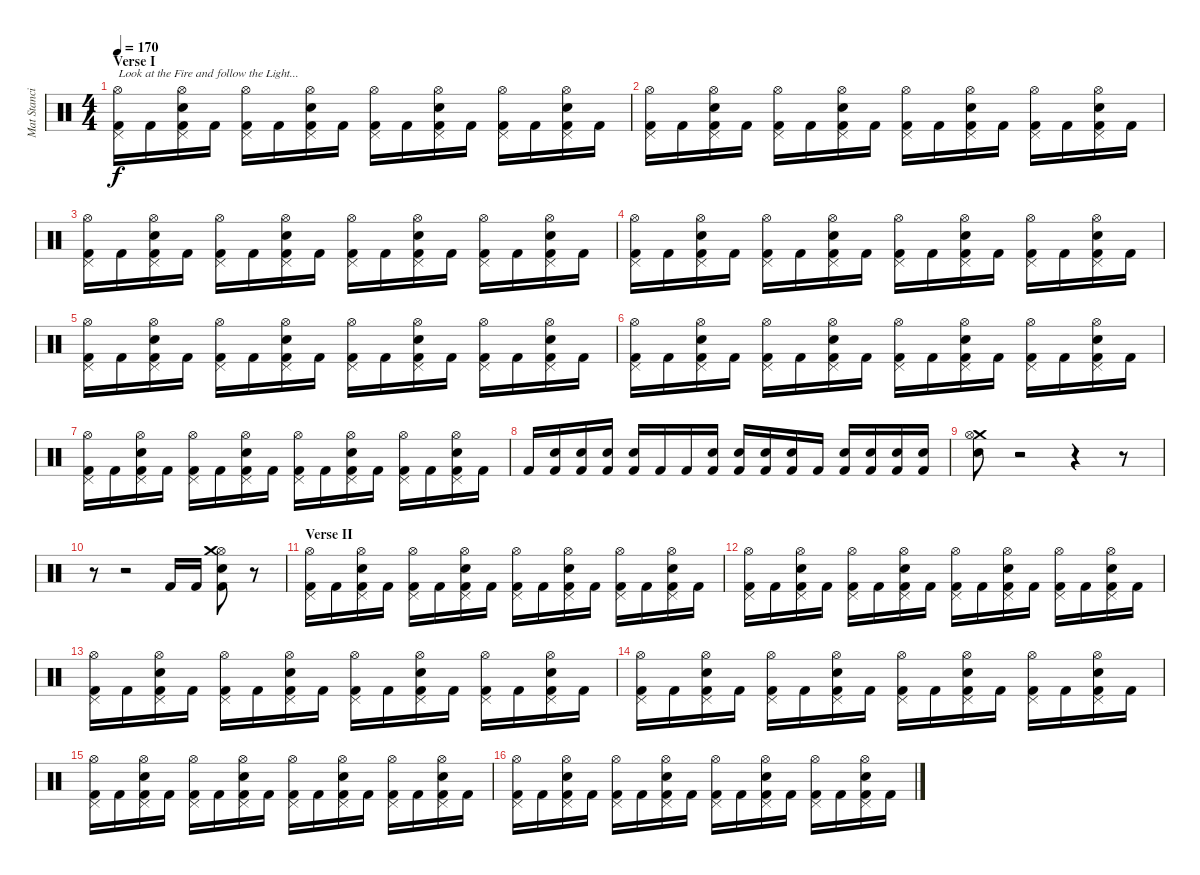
\track ("Mat Stancioiu" "Mat Stanci") {instrument percussion}
\staff {score}
\articulation defaults
\ts (4 4)
\section ("" "Verse I")
\tempo 170
\clef neutral
\ks c
("Hi-Hat (open)" "Kick (hit) 2" "Pedal Hi-Hat (hit)").16{txt "Look at the Fire and follow the Light..." dy f} "Kick (hit) 2".16 ("Electric Snare (hit)" "Hi-Hat (open)" "Kick (hit) 2" "Pedal Hi-Hat (hit)").16 "Kick (hit) 2".16 ("Hi-Hat (open)" "Kick (hit) 2" "Pedal Hi-Hat (hit)").16 "Kick (hit) 2".16 ("Electric Snare (hit)" "Hi-Hat (open)" "Kick (hit) 2" "Pedal Hi-Hat (hit)").16 "Kick (hit) 2".16 ("Hi-Hat (open)" "Kick (hit) 2" "Pedal Hi-Hat (hit)").16 "Kick (hit) 2".16 ("Electric Snare (hit)" "Hi-Hat (open)" "Kick (hit) 2" "Pedal Hi-Hat (hit)").16 "Kick (hit) 2".16 ("Hi-Hat (open)" "Kick (hit) 2" "Pedal Hi-Hat (hit)").16 "Kick (hit) 2".16 ("Electric Snare (hit)" "Hi-Hat (open)" "Kick (hit) 2" "Pedal Hi-Hat (hit)").16 "Kick (hit) 2".16 |
("Hi-Hat (open)" "Kick (hit) 2" "Pedal Hi-Hat (hit)").16 "Kick (hit) 2".16 ("Electric Snare (hit)" "Hi-Hat (open)" "Kick (hit) 2" "Pedal Hi-Hat (hit)").16 "Kick (hit) 2".16 ("Hi-Hat (open)" "Kick (hit) 2" "Pedal Hi-Hat (hit)").16 "Kick (hit) 2".16 ("Electric Snare (hit)" "Hi-Hat (open)" "Kick (hit) 2" "Pedal Hi-Hat (hit)").16 "Kick (hit) 2".16 ("Hi-Hat (open)" "Kick (hit) 2" "Pedal Hi-Hat (hit)").16 "Kick (hit) 2".16 ("Electric Snare (hit)" "Hi-Hat (open)" "Kick (hit) 2" "Pedal Hi-Hat (hit)").16 "Kick (hit) 2".16 ("Hi-Hat (open)" "Kick (hit) 2" "Pedal Hi-Hat (hit)").16 "Kick (hit) 2".16 ("Electric Snare (hit)" "Hi-Hat (open)" "Kick (hit) 2" "Pedal Hi-Hat (hit)").16 "Kick (hit) 2".16 |
("Hi-Hat (open)" "Kick (hit) 2" "Pedal Hi-Hat (hit)").16 "Kick (hit) 2".16 ("Electric Snare (hit)" "Hi-Hat (open)" "Kick (hit) 2" "Pedal Hi-Hat (hit)").16 "Kick (hit) 2".16 ("Hi-Hat (open)" "Kick (hit) 2" "Pedal Hi-Hat (hit)").16 "Kick (hit) 2".16 ("Electric Snare (hit)" "Hi-Hat (open)" "Kick (hit) 2" "Pedal Hi-Hat (hit)").16 "Kick (hit) 2".16 ("Hi-Hat (open)" "Kick (hit) 2" "Pedal Hi-Hat (hit)").16 "Kick (hit) 2".16 ("Electric Snare (hit)" "Hi-Hat (open)" "Kick (hit) 2" "Pedal Hi-Hat (hit)").16 "Kick (hit) 2".16 ("Hi-Hat (open)" "Kick (hit) 2" "Pedal Hi-Hat (hit)").16 "Kick (hit) 2".16 ("Electric Snare (hit)" "Hi-Hat (open)" "Kick (hit) 2" "Pedal Hi-Hat (hit)").16 "Kick (hit) 2".16 |
("Hi-Hat (open)" "Kick (hit) 2" "Pedal Hi-Hat (hit)").16 "Kick (hit) 2".16 ("Electric Snare (hit)" "Hi-Hat (open)" "Kick (hit) 2" "Pedal Hi-Hat (hit)").16 "Kick (hit) 2".16 ("Hi-Hat (open)" "Kick (hit) 2" "Pedal Hi-Hat (hit)").16 "Kick (hit) 2".16 ("Electric Snare (hit)" "Hi-Hat (open)" "Kick (hit) 2" "Pedal Hi-Hat (hit)").16 "Kick (hit) 2".16 ("Hi-Hat (open)" "Kick (hit) 2" "Pedal Hi-Hat (hit)").16 "Kick (hit) 2".16 ("Electric Snare (hit)" "Hi-Hat (open)" "Kick (hit) 2" "Pedal Hi-Hat (hit)").16 "Kick (hit) 2".16 ("Hi-Hat (open)" "Kick (hit) 2" "Pedal Hi-Hat (hit)").16 "Kick (hit) 2".16 ("Electric Snare (hit)" "Hi-Hat (open)" "Kick (hit) 2" "Pedal Hi-Hat (hit)").16 "Kick (hit) 2".16 |
("Hi-Hat (open)" "Kick (hit) 2" "Pedal Hi-Hat (hit)").16 "Kick (hit) 2".16 ("Electric Snare (hit)" "Hi-Hat (open)" "Kick (hit) 2" "Pedal Hi-Hat (hit)").16 "Kick (hit) 2".16 ("Hi-Hat (open)" "Kick (hit) 2" "Pedal Hi-Hat (hit)").16 "Kick (hit) 2".16 ("Electric Snare (hit)" "Hi-Hat (open)" "Kick (hit) 2" "Pedal Hi-Hat (hit)").16 "Kick (hit) 2".16 ("Hi-Hat (open)" "Kick (hit) 2" "Pedal Hi-Hat (hit)").16 "Kick (hit) 2".16 ("Electric Snare (hit)" "Hi-Hat (open)" "Kick (hit) 2" "Pedal Hi-Hat (hit)").16 "Kick (hit) 2".16 ("Hi-Hat (open)" "Kick (hit) 2" "Pedal Hi-Hat (hit)").16 "Kick (hit) 2".16 ("Electric Snare (hit)" "Hi-Hat (open)" "Kick (hit) 2" "Pedal Hi-Hat (hit)").16 "Kick (hit) 2".16 |
("Hi-Hat (open)" "Kick (hit) 2" "Pedal Hi-Hat (hit)").16 "Kick (hit) 2".16 ("Electric Snare (hit)" "Hi-Hat (open)" "Kick (hit) 2" "Pedal Hi-Hat (hit)").16 "Kick (hit) 2".16 ("Hi-Hat (open)" "Kick (hit) 2" "Pedal Hi-Hat (hit)").16 "Kick (hit) 2".16 ("Electric Snare (hit)" "Hi-Hat (open)" "Kick (hit) 2" "Pedal Hi-Hat (hit)").16 "Kick (hit) 2".16 ("Hi-Hat (open)" "Kick (hit) 2" "Pedal Hi-Hat (hit)").16 "Kick (hit) 2".16 ("Electric Snare (hit)" "Hi-Hat (open)" "Kick (hit) 2" "Pedal Hi-Hat (hit)").16 "Kick (hit) 2".16 ("Hi-Hat (open)" "Kick (hit) 2" "Pedal Hi-Hat (hit)").16 "Kick (hit) 2".16 ("Electric Snare (hit)" "Hi-Hat (open)" "Kick (hit) 2" "Pedal Hi-Hat (hit)").16 "Kick (hit) 2".16 |
("Hi-Hat (open)" "Kick (hit) 2" "Pedal Hi-Hat (hit)").16 "Kick (hit) 2".16 ("Electric Snare (hit)" "Hi-Hat (open)" "Kick (hit) 2" "Pedal Hi-Hat (hit)").16 "Kick (hit) 2".16 ("Hi-Hat (open)" "Kick (hit) 2" "Pedal Hi-Hat (hit)").16 "Kick (hit) 2".16 ("Electric Snare (hit)" "Hi-Hat (open)" "Kick (hit) 2" "Pedal Hi-Hat (hit)").16 "Kick (hit) 2".16 ("Hi-Hat (open)" "Kick (hit) 2" "Pedal Hi-Hat (hit)").16 "Kick (hit) 2".16 ("Electric Snare (hit)" "Hi-Hat (open)" "Kick (hit) 2" "Pedal Hi-Hat (hit)").16 "Kick (hit) 2".16 ("Hi-Hat (open)" "Kick (hit) 2" "Pedal Hi-Hat (hit)").16 "Kick (hit) 2".16 ("Electric Snare (hit)" "Hi-Hat (open)" "Kick (hit) 2" "Pedal Hi-Hat (hit)").16 "Kick (hit) 2".16 |
"Kick (hit) 2".16 ("Electric Snare (hit)" "Kick (hit) 2").16 ("Electric Snare (hit)" "Kick (hit) 2").16 ("Electric Snare (hit)" "Kick (hit) 2").16 ("Electric Snare (hit)" "Kick (hit) 2").16 "Kick (hit) 2".16 "Kick (hit) 2".16 ("Electric Snare (hit)" "Kick (hit) 2").16 ("Electric Snare (hit)" "Kick (hit) 2").16 ("Electric Snare (hit)" "Kick (hit) 2").16 ("Electric Snare (hit)" "Kick (hit) 2").16 "Kick (hit) 2".16 ("Electric Snare (hit)" "Kick (hit) 2").16 ("Electric Snare (hit)" "Kick (hit) 2").16 ("Electric Snare (hit)" "Kick (hit) 2").16 ("Electric Snare (hit)" "Kick (hit) 2").16 |
("Crash medium (hit)" "Hi-Hat (open)" "Snare (hit)").8 r.2 r.4 r.8 |
r.8 r.2 "Kick (hit) 2".16 "Kick (hit) 2".16 ("Electric Snare (hit)" "Hi-Hat (open)" "Kick (hit) 2" "Crash medium (hit)").8 r.8 |
\section ("" "Verse II")
("Hi-Hat (open)" "Kick (hit) 2" "Pedal Hi-Hat (hit)").16 "Kick (hit) 2".16 ("Electric Snare (hit)" "Hi-Hat (open)" "Kick (hit) 2" "Pedal Hi-Hat (hit)").16 "Kick (hit) 2".16 ("Hi-Hat (open)" "Kick (hit) 2" "Pedal Hi-Hat (hit)").16 "Kick (hit) 2".16 ("Electric Snare (hit)" "Hi-Hat (open)" "Kick (hit) 2" "Pedal Hi-Hat (hit)").16 "Kick (hit) 2".16 ("Hi-Hat (open)" "Kick (hit) 2" "Pedal Hi-Hat (hit)").16 "Kick (hit) 2".16 ("Electric Snare (hit)" "Hi-Hat (open)" "Kick (hit) 2" "Pedal Hi-Hat (hit)").16 "Kick (hit) 2".16 ("Hi-Hat (open)" "Kick (hit) 2" "Pedal Hi-Hat (hit)").16 "Kick (hit) 2".16 ("Electric Snare (hit)" "Hi-Hat (open)" "Kick (hit) 2" "Pedal Hi-Hat (hit)").16 "Kick (hit) 2".16 |
("Hi-Hat (open)" "Kick (hit) 2" "Pedal Hi-Hat (hit)").16 "Kick (hit) 2".16 ("Electric Snare (hit)" "Hi-Hat (open)" "Kick (hit) 2" "Pedal Hi-Hat (hit)").16 "Kick (hit) 2".16 ("Hi-Hat (open)" "Kick (hit) 2" "Pedal Hi-Hat (hit)").16 "Kick (hit) 2".16 ("Electric Snare (hit)" "Hi-Hat (open)" "Kick (hit) 2" "Pedal Hi-Hat (hit)").16 "Kick (hit) 2".16 ("Hi-Hat (open)" "Kick (hit) 2" "Pedal Hi-Hat (hit)").16 "Kick (hit) 2".16 ("Electric Snare (hit)" "Hi-Hat (open)" "Kick (hit) 2" "Pedal Hi-Hat (hit)").16 "Kick (hit) 2".16 ("Hi-Hat (open)" "Kick (hit) 2" "Pedal Hi-Hat (hit)").16 "Kick (hit) 2".16 ("Electric Snare (hit)" "Hi-Hat (open)" "Kick (hit) 2" "Pedal Hi-Hat (hit)").16 "Kick (hit) 2".16 |
("Hi-Hat (open)" "Kick (hit) 2" "Pedal Hi-Hat (hit)").16 "Kick (hit) 2".16 ("Electric Snare (hit)" "Hi-Hat (open)" "Kick (hit) 2" "Pedal Hi-Hat (hit)").16 "Kick (hit) 2".16 ("Hi-Hat (open)" "Kick (hit) 2" "Pedal Hi-Hat (hit)").16 "Kick (hit) 2".16 ("Electric Snare (hit)" "Hi-Hat (open)" "Kick (hit) 2" "Pedal Hi-Hat (hit)").16 "Kick (hit) 2".16 ("Hi-Hat (open)" "Kick (hit) 2" "Pedal Hi-Hat (hit)").16 "Kick (hit) 2".16 ("Electric Snare (hit)" "Hi-Hat (open)" "Kick (hit) 2" "Pedal Hi-Hat (hit)").16 "Kick (hit) 2".16 ("Hi-Hat (open)" "Kick (hit) 2" "Pedal Hi-Hat (hit)").16 "Kick (hit) 2".16 ("Electric Snare (hit)" "Hi-Hat (open)" "Kick (hit) 2" "Pedal Hi-Hat (hit)").16 "Kick (hit) 2".16 |
("Hi-Hat (open)" "Kick (hit) 2" "Pedal Hi-Hat (hit)").16 "Kick (hit) 2".16 ("Electric Snare (hit)" "Hi-Hat (open)" "Kick (hit) 2" "Pedal Hi-Hat (hit)").16 "Kick (hit) 2".16 ("Hi-Hat (open)" "Kick (hit) 2" "Pedal Hi-Hat (hit)").16 "Kick (hit) 2".16 ("Electric Snare (hit)" "Hi-Hat (open)" "Kick (hit) 2" "Pedal Hi-Hat (hit)").16 "Kick (hit) 2".16 ("Hi-Hat (open)" "Kick (hit) 2" "Pedal Hi-Hat (hit)").16 "Kick (hit) 2".16 ("Electric Snare (hit)" "Hi-Hat (open)" "Kick (hit) 2" "Pedal Hi-Hat (hit)").16 "Kick (hit) 2".16 ("Hi-Hat (open)" "Kick (hit) 2" "Pedal Hi-Hat (hit)").16 "Kick (hit) 2".16 ("Electric Snare (hit)" "Hi-Hat (open)" "Kick (hit) 2" "Pedal Hi-Hat (hit)").16 "Kick (hit) 2".16 |
("Hi-Hat (open)" "Kick (hit) 2" "Pedal Hi-Hat (hit)").16 "Kick (hit) 2".16 ("Electric Snare (hit)" "Hi-Hat (open)" "Kick (hit) 2" "Pedal Hi-Hat (hit)").16 "Kick (hit) 2".16 ("Hi-Hat (open)" "Kick (hit) 2" "Pedal Hi-Hat (hit)").16 "Kick (hit) 2".16 ("Electric Snare (hit)" "Hi-Hat (open)" "Kick (hit) 2" "Pedal Hi-Hat (hit)").16 "Kick (hit) 2".16 ("Hi-Hat (open)" "Kick (hit) 2" "Pedal Hi-Hat (hit)").16 "Kick (hit) 2".16 ("Electric Snare (hit)" "Hi-Hat (open)" "Kick (hit) 2" "Pedal Hi-Hat (hit)").16 "Kick (hit) 2".16 ("Hi-Hat (open)" "Kick (hit) 2" "Pedal Hi-Hat (hit)").16 "Kick (hit) 2".16 ("Electric Snare (hit)" "Hi-Hat (open)" "Kick (hit) 2" "Pedal Hi-Hat (hit)").16 "Kick (hit) 2".16 |
("Hi-Hat (open)" "Kick (hit) 2" "Pedal Hi-Hat (hit)").16 "Kick (hit) 2".16 ("Electric Snare (hit)" "Hi-Hat (open)" "Kick (hit) 2" "Pedal Hi-Hat (hit)").16 "Kick (hit) 2".16 ("Hi-Hat (open)" "Kick (hit) 2" "Pedal Hi-Hat (hit)").16 "Kick (hit) 2".16 ("Electric Snare (hit)" "Hi-Hat (open)" "Kick (hit) 2" "Pedal Hi-Hat (hit)").16 "Kick (hit) 2".16 ("Hi-Hat (open)" "Kick (hit) 2" "Pedal Hi-Hat (hit)").16 "Kick (hit) 2".16 ("Electric Snare (hit)" "Hi-Hat (open)" "Kick (hit) 2" "Pedal Hi-Hat (hit)").16 "Kick (hit) 2".16 ("Hi-Hat (open)" "Kick (hit) 2" "Pedal Hi-Hat (hit)").16 "Kick (hit) 2".16 ("Electric Snare (hit)" "Hi-Hat (open)" "Kick (hit) 2" "Pedal Hi-Hat (hit)").16 "Kick (hit) 2".16
